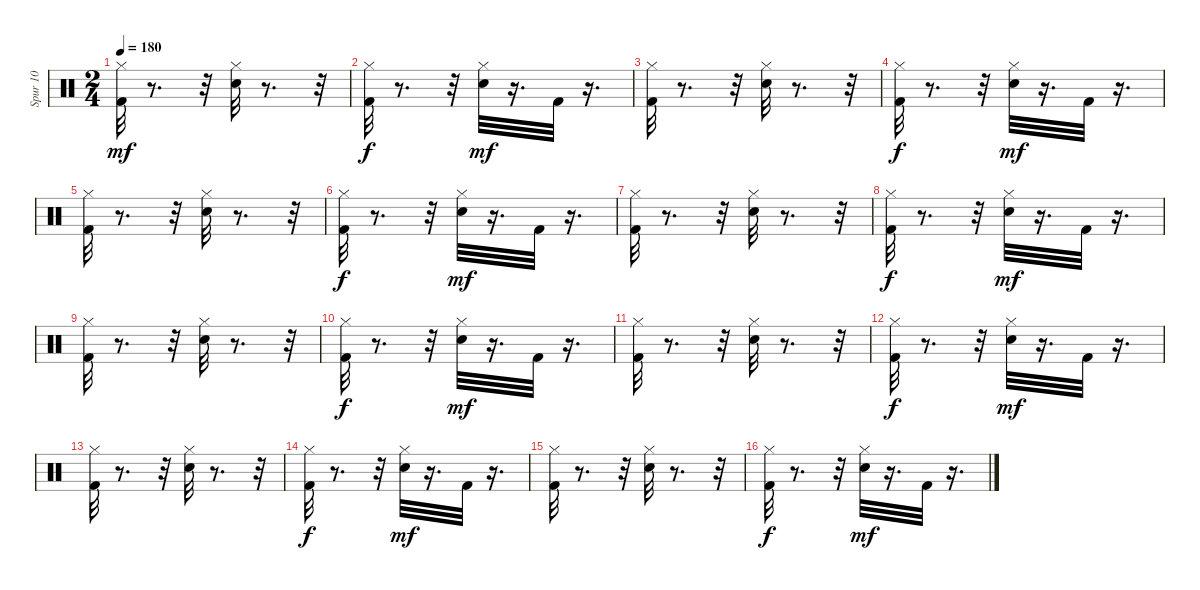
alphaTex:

\track ("Spur 10" "Spur 10") {instrument percussion}
\staff {score}
\articulation defaults
\ts (2 4)
\tempo 180
\clef neutral
\ks c
("Hi-Hat (closed)" "Kick (hit) 2").32{dy mf} r.8{d} r.32 ("Electric Snare (hit)" "Hi-Hat (closed)").32 r.8{d} r.32 |
("Hi-Hat (closed)" "Kick (hit) 2").32{dy f} r.8{d} r.32 ("Electric Snare (hit)" "Hi-Hat (closed)").32{dy mf} r.16{d} "Kick (hit) 2".32 r.16{d} |
("Hi-Hat (closed)" "Kick (hit) 2").32 r.8{d} r.32 ("Electric Snare (hit)" "Hi-Hat (closed)").32 r.8{d} r.32 |
("Hi-Hat (closed)" "Kick (hit) 2").32{dy f} r.8{d} r.32 ("Electric Snare (hit)" "Hi-Hat (closed)").32{dy mf} r.16{d} "Kick (hit) 2".32 r.16{d} |
("Hi-Hat (closed)" "Kick (hit) 2").32 r.8{d} r.32 ("Electric Snare (hit)" "Hi-Hat (closed)").32 r.8{d} r.32 |
("Hi-Hat (closed)" "Kick (hit) 2").32{dy f} r.8{d} r.32 ("Electric Snare (hit)" "Hi-Hat (closed)").32{dy mf} r.16{d} "Kick (hit) 2".32 r.16{d} |
("Hi-Hat (closed)" "Kick (hit) 2").32 r.8{d} r.32 ("Electric Snare (hit)" "Hi-Hat (closed)").32 r.8{d} r.32 |
("Hi-Hat (closed)" "Kick (hit) 2").32{dy f} r.8{d} r.32 ("Electric Snare (hit)" "Hi-Hat (closed)").32{dy mf} r.16{d} "Kick (hit) 2".32 r.16{d} |
("Hi-Hat (closed)" "Kick (hit) 2").32 r.8{d} r.32 ("Electric Snare (hit)" "Hi-Hat (closed)").32 r.8{d} r.32 |
("Hi-Hat (closed)" "Kick (hit) 2").32{dy f} r.8{d} r.32 ("Electric Snare (hit)" "Hi-Hat (closed)").32{dy mf} r.16{d} "Kick (hit) 2".32 r.16{d} |
("Hi-Hat (closed)" "Kick (hit) 2").32 r.8{d} r.32 ("Electric Snare (hit)" "Hi-Hat (closed)").32 r.8{d} r.32 |
("Hi-Hat (closed)" "Kick (hit) 2").32{dy f} r.8{d} r.32 ("Electric Snare (hit)" "Hi-Hat (closed)").32{dy mf} r.16{d} "Kick (hit) 2".32 r.16{d} |
("Hi-Hat (closed)" "Kick (hit) 2").32 r.8{d} r.32 ("Electric Snare (hit)" "Hi-Hat (closed)").32 r.8{d} r.32 |
("Hi-Hat (closed)" "Kick (hit) 2").32{dy f} r.8{d} r.32 ("Electric Snare (hit)" "Hi-Hat (closed)").32{dy mf} r.16{d} "Kick (hit) 2".32 r.16{d} |
("Hi-Hat (closed)" "Kick (hit) 2").32 r.8{d} r.32 ("Electric Snare (hit)" "Hi-Hat (closed)").32 r.8{d} r.32 |
("Hi-Hat (closed)" "Kick (hit) 2").32{dy f} r.8{d} r.32 ("Electric Snare (hit)" "Hi-Hat (closed)").32{dy mf} r.16{d} "Kick (hit) 2".32 r.16{d}
